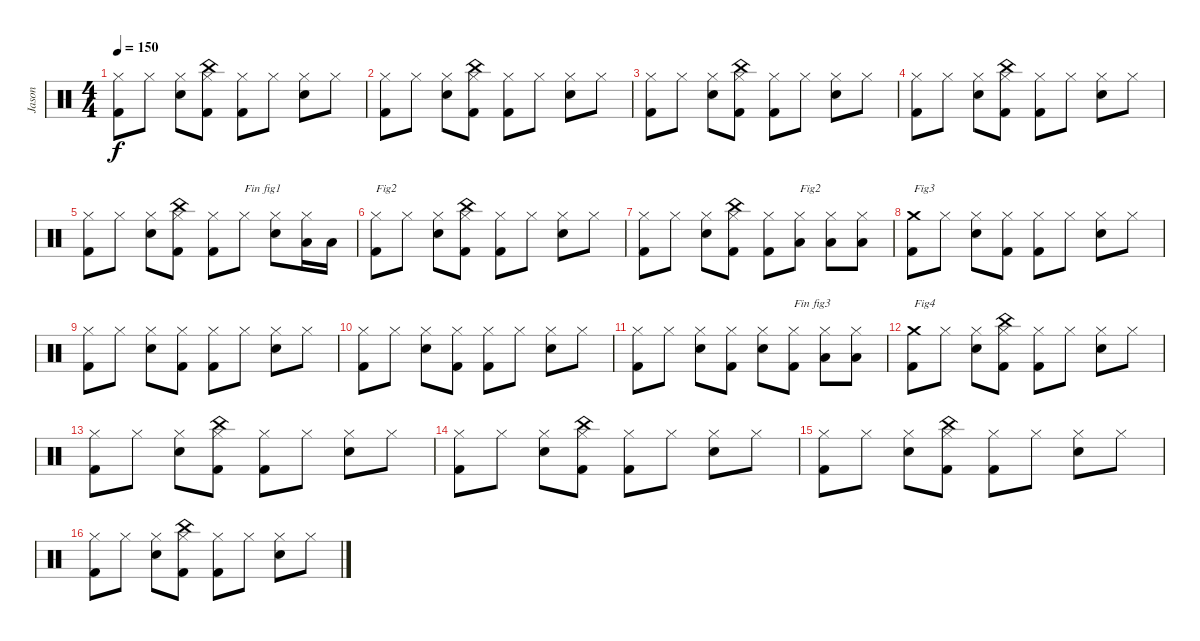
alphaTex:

\track ("Jason" "Jason") {instrument percussion}
\staff {score}
\articulation defaults
\ts (4 4)
\tempo 150
\clef neutral
\ks c
("Kick (hit) 2" "Hi-Hat (closed)").8{dy f} "Hi-Hat (closed)".8 ("Electric Snare (hit)" "Hi-Hat (closed)").8 ("Kick (hit) 2" "China (hit)" "Hi-Hat (closed)").8 ("Kick (hit) 2" "Hi-Hat (closed)").8 "Hi-Hat (closed)".8 ("Electric Snare (hit)" "Hi-Hat (closed)").8 "Hi-Hat (closed)".8 |
("Kick (hit) 2" "Hi-Hat (closed)").8 "Hi-Hat (closed)".8 ("Electric Snare (hit)" "Hi-Hat (closed)").8 ("Kick (hit) 2" "China (hit)" "Hi-Hat (closed)").8 ("Kick (hit) 2" "Hi-Hat (closed)").8 "Hi-Hat (closed)".8 ("Electric Snare (hit)" "Hi-Hat (closed)").8 "Hi-Hat (closed)".8 |
("Kick (hit) 2" "Hi-Hat (closed)").8 "Hi-Hat (closed)".8 ("Electric Snare (hit)" "Hi-Hat (closed)").8 ("Kick (hit) 2" "China (hit)" "Hi-Hat (closed)").8 ("Kick (hit) 2" "Hi-Hat (closed)").8 "Hi-Hat (closed)".8 ("Electric Snare (hit)" "Hi-Hat (closed)").8 "Hi-Hat (closed)".8 |
("Kick (hit) 2" "Hi-Hat (closed)").8 "Hi-Hat (closed)".8 ("Electric Snare (hit)" "Hi-Hat (closed)").8 ("Kick (hit) 2" "China (hit)" "Hi-Hat (closed)").8 ("Kick (hit) 2" "Hi-Hat (closed)").8 "Hi-Hat (closed)".8 ("Electric Snare (hit)" "Hi-Hat (closed)").8 "Hi-Hat (closed)".8 |
("Kick (hit) 2" "Hi-Hat (closed)").8 "Hi-Hat (closed)".8 ("Electric Snare (hit)" "Hi-Hat (closed)").8 ("Kick (hit) 2" "China (hit)" "Hi-Hat (closed)").8 ("Kick (hit) 2" "Hi-Hat (closed)").8 "Hi-Hat (closed)".8{txt "Fin fig1"} ("Electric Snare (hit)" "Hi-Hat (closed)").8 ("Low Tom (hit)" "Hi-Hat (closed)").16 "Low Tom (hit)".16 |
("Kick (hit) 2" "Hi-Hat (closed)").8{txt "Fig2"} "Hi-Hat (closed)".8 ("Electric Snare (hit)" "Hi-Hat (closed)").8 ("Kick (hit) 2" "China (hit)" "Hi-Hat (closed)").8 ("Kick (hit) 2" "Hi-Hat (closed)").8 "Hi-Hat (closed)".8 ("Electric Snare (hit)" "Hi-Hat (closed)").8 "Hi-Hat (closed)".8 |
("Kick (hit) 2" "Hi-Hat (closed)").8 "Hi-Hat (closed)".8 ("Electric Snare (hit)" "Hi-Hat (closed)").8 ("Kick (hit) 2" "China (hit)" "Hi-Hat (closed)").8 ("Kick (hit) 2" "Hi-Hat (closed)").8 ("Low Tom (hit)" "Hi-Hat (closed)").8{txt "Fig2"} ("Low Tom (hit)" "Hi-Hat (closed)").8 ("Low Tom (hit)" "Hi-Hat (closed)").8 |
("Kick (hit) 2" "Crash medium (hit)").8{txt "Fig3"} "Hi-Hat (closed)".8 ("Electric Snare (hit)" "Hi-Hat (closed)").8 ("Kick (hit) 2" "Hi-Hat (closed)").8 ("Kick (hit) 2" "Hi-Hat (closed)").8 "Hi-Hat (closed)".8 ("Electric Snare (hit)" "Hi-Hat (closed)").8 "Hi-Hat (closed)".8 |
("Kick (hit) 2" "Hi-Hat (closed)").8 "Hi-Hat (closed)".8 ("Electric Snare (hit)" "Hi-Hat (closed)").8 ("Kick (hit) 2" "Hi-Hat (closed)").8 ("Kick (hit) 2" "Hi-Hat (closed)").8 "Hi-Hat (closed)".8 ("Electric Snare (hit)" "Hi-Hat (closed)").8 "Hi-Hat (closed)".8 |
("Kick (hit) 2" "Hi-Hat (closed)").8 "Hi-Hat (closed)".8 ("Electric Snare (hit)" "Hi-Hat (closed)").8 ("Kick (hit) 2" "Hi-Hat (closed)").8 ("Kick (hit) 2" "Hi-Hat (closed)").8 "Hi-Hat (closed)".8 ("Electric Snare (hit)" "Hi-Hat (closed)").8 "Hi-Hat (closed)".8 |
("Kick (hit) 2" "Hi-Hat (closed)").8 "Hi-Hat (closed)".8 ("Electric Snare (hit)" "Hi-Hat (closed)").8 ("Kick (hit) 2" "Hi-Hat (closed)").8 ("Electric Snare (hit)" "Hi-Hat (closed)").8 ("Kick (hit) 2" "Hi-Hat (closed)").8{txt "Fin fig3"} ("Low Tom (hit)" "Hi-Hat (closed)").8 ("Low Tom (hit)" "Hi-Hat (closed)").8 |
("Kick (hit) 2" "Crash medium (hit)").8{txt "Fig4"} "Hi-Hat (closed)".8 ("Electric Snare (hit)" "Hi-Hat (closed)").8 ("Kick (hit) 2" "China (hit)" "Hi-Hat (closed)").8 ("Kick (hit) 2" "Hi-Hat (closed)").8 "Hi-Hat (closed)".8 ("Electric Snare (hit)" "Hi-Hat (closed)").8 "Hi-Hat (closed)".8 |
("Kick (hit) 2" "Hi-Hat (closed)").8 "Hi-Hat (closed)".8 ("Electric Snare (hit)" "Hi-Hat (closed)").8 ("Kick (hit) 2" "China (hit)" "Hi-Hat (closed)").8 ("Kick (hit) 2" "Hi-Hat (closed)").8 "Hi-Hat (closed)".8 ("Electric Snare (hit)" "Hi-Hat (closed)").8 "Hi-Hat (closed)".8 |
("Kick (hit) 2" "Hi-Hat (closed)").8 "Hi-Hat (closed)".8 ("Electric Snare (hit)" "Hi-Hat (closed)").8 ("Kick (hit) 2" "China (hit)" "Hi-Hat (closed)").8 ("Kick (hit) 2" "Hi-Hat (closed)").8 "Hi-Hat (closed)".8 ("Electric Snare (hit)" "Hi-Hat (closed)").8 "Hi-Hat (closed)".8 |
("Kick (hit) 2" "Hi-Hat (closed)").8 "Hi-Hat (closed)".8 ("Electric Snare (hit)" "Hi-Hat (closed)").8 ("Kick (hit) 2" "China (hit)" "Hi-Hat (closed)").8 ("Kick (hit) 2" "Hi-Hat (closed)").8 "Hi-Hat (closed)".8 ("Electric Snare (hit)" "Hi-Hat (closed)").8 "Hi-Hat (closed)".8 |
("Kick (hit) 2" "Hi-Hat (closed)").8 "Hi-Hat (closed)".8 ("Electric Snare (hit)" "Hi-Hat (closed)").8 ("Kick (hit) 2" "China (hit)" "Hi-Hat (closed)").8 ("Kick (hit) 2" "Hi-Hat (closed)").8 "Hi-Hat (closed)".8 ("Electric Snare (hit)" "Hi-Hat (closed)").8 "Hi-Hat (closed)".8
